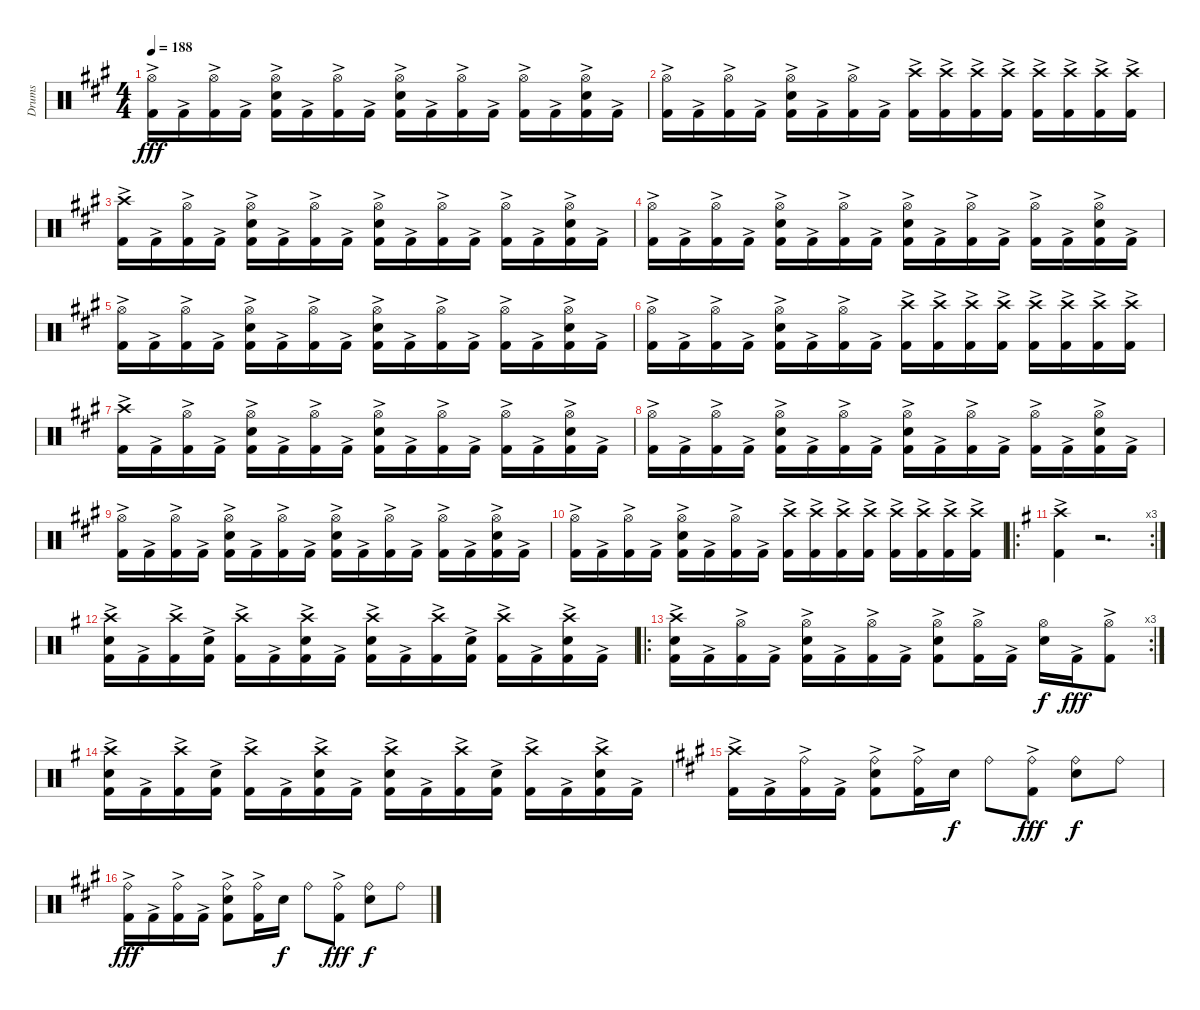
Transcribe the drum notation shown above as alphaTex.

\track ("Drums" "Drums") {instrument percussion}
\staff {score}
\articulation defaults
\ts (4 4)
\tempo 188
\clef neutral
\ks f#minor
("Hi-Hat (open)" "Kick (hit) 2"{ac}).16{dy fff} "Kick (hit) 2"{ac}.16 ("Hi-Hat (open)" "Kick (hit) 2"{ac}).16 "Kick (hit) 2"{ac}.16 ("Hi-Hat (open)" "Snare (hit) 2" "Kick (hit) 2"{ac}).16 "Kick (hit) 2"{ac}.16 ("Hi-Hat (open)" "Kick (hit) 2"{ac}).16 "Kick (hit) 2"{ac}.16 ("Hi-Hat (open)" "Snare (hit) 2" "Kick (hit) 2"{ac}).16 "Kick (hit) 2"{ac}.16 ("Hi-Hat (open)" "Kick (hit) 2"{ac}).16 "Kick (hit) 2"{ac}.16 ("Hi-Hat (open)" "Kick (hit) 2"{ac}).16 "Kick (hit) 2"{ac}.16 ("Hi-Hat (open)" "Snare (hit) 2" "Kick (hit) 2"{ac}).16 "Kick (hit) 2"{ac}.16 |
("Hi-Hat (open)" "Kick (hit) 2"{ac}).16 "Kick (hit) 2"{ac}.16 ("Hi-Hat (open)" "Kick (hit) 2"{ac}).16 "Kick (hit) 2"{ac}.16 ("Hi-Hat (open)" "Snare (hit) 2" "Kick (hit) 2"{ac}).16 "Kick (hit) 2"{ac}.16 ("Hi-Hat (open)" "Kick (hit) 2"{ac}).16 "Kick (hit) 2"{ac}.16 ("Crash high (hit)" "Kick (hit) 2"{ac}).16 ("Crash high (hit)" "Kick (hit) 2"{ac}).16 ("Crash high (hit)" "Kick (hit) 2"{ac}).16 ("Crash high (hit)" "Kick (hit) 2"{ac}).16 ("Crash high (hit)" "Kick (hit) 2"{ac}).16 ("Crash high (hit)" "Kick (hit) 2"{ac}).16 ("Crash high (hit)" "Kick (hit) 2"{ac}).16 ("Crash high (hit)" "Kick (hit) 2"{ac}).16 |
("Crash high (hit)" "Kick (hit) 2"{ac}).16 "Kick (hit) 2"{ac}.16 ("Hi-Hat (open)" "Kick (hit) 2"{ac}).16 "Kick (hit) 2"{ac}.16 ("Hi-Hat (open)" "Snare (hit) 2" "Kick (hit) 2"{ac}).16 "Kick (hit) 2"{ac}.16 ("Hi-Hat (open)" "Kick (hit) 2"{ac}).16 "Kick (hit) 2"{ac}.16 ("Hi-Hat (open)" "Snare (hit) 2" "Kick (hit) 2"{ac}).16 "Kick (hit) 2"{ac}.16 ("Hi-Hat (open)" "Kick (hit) 2"{ac}).16 "Kick (hit) 2"{ac}.16 ("Hi-Hat (open)" "Kick (hit) 2"{ac}).16 "Kick (hit) 2"{ac}.16 ("Hi-Hat (open)" "Snare (hit) 2" "Kick (hit) 2"{ac}).16 "Kick (hit) 2"{ac}.16 |
("Hi-Hat (open)" "Kick (hit) 2"{ac}).16 "Kick (hit) 2"{ac}.16 ("Hi-Hat (open)" "Kick (hit) 2"{ac}).16 "Kick (hit) 2"{ac}.16 ("Hi-Hat (open)" "Snare (hit) 2" "Kick (hit) 2"{ac}).16 "Kick (hit) 2"{ac}.16 ("Hi-Hat (open)" "Kick (hit) 2"{ac}).16 "Kick (hit) 2"{ac}.16 ("Hi-Hat (open)" "Snare (hit) 2" "Kick (hit) 2"{ac}).16 "Kick (hit) 2"{ac}.16 ("Hi-Hat (open)" "Kick (hit) 2"{ac}).16 "Kick (hit) 2"{ac}.16 ("Hi-Hat (open)" "Kick (hit) 2"{ac}).16 "Kick (hit) 2"{ac}.16 ("Hi-Hat (open)" "Snare (hit) 2" "Kick (hit) 2"{ac}).16 "Kick (hit) 2"{ac}.16 |
("Hi-Hat (open)" "Kick (hit) 2"{ac}).16 "Kick (hit) 2"{ac}.16 ("Hi-Hat (open)" "Kick (hit) 2"{ac}).16 "Kick (hit) 2"{ac}.16 ("Hi-Hat (open)" "Snare (hit) 2" "Kick (hit) 2"{ac}).16 "Kick (hit) 2"{ac}.16 ("Hi-Hat (open)" "Kick (hit) 2"{ac}).16 "Kick (hit) 2"{ac}.16 ("Hi-Hat (open)" "Snare (hit) 2" "Kick (hit) 2"{ac}).16 "Kick (hit) 2"{ac}.16 ("Hi-Hat (open)" "Kick (hit) 2"{ac}).16 "Kick (hit) 2"{ac}.16 ("Hi-Hat (open)" "Kick (hit) 2"{ac}).16 "Kick (hit) 2"{ac}.16 ("Hi-Hat (open)" "Snare (hit) 2" "Kick (hit) 2"{ac}).16 "Kick (hit) 2"{ac}.16 |
("Hi-Hat (open)" "Kick (hit) 2"{ac}).16 "Kick (hit) 2"{ac}.16 ("Hi-Hat (open)" "Kick (hit) 2"{ac}).16 "Kick (hit) 2"{ac}.16 ("Hi-Hat (open)" "Snare (hit) 2" "Kick (hit) 2"{ac}).16 "Kick (hit) 2"{ac}.16 ("Hi-Hat (open)" "Kick (hit) 2"{ac}).16 "Kick (hit) 2"{ac}.16 ("Crash high (hit)" "Kick (hit) 2"{ac}).16 ("Crash high (hit)" "Kick (hit) 2"{ac}).16 ("Crash high (hit)" "Kick (hit) 2"{ac}).16 ("Crash high (hit)" "Kick (hit) 2"{ac}).16 ("Crash high (hit)" "Kick (hit) 2"{ac}).16 ("Crash high (hit)" "Kick (hit) 2"{ac}).16 ("Crash high (hit)" "Kick (hit) 2"{ac}).16 ("Crash high (hit)" "Kick (hit) 2"{ac}).16 |
("Crash high (hit)" "Kick (hit) 2"{ac}).16 "Kick (hit) 2"{ac}.16 ("Hi-Hat (open)" "Kick (hit) 2"{ac}).16 "Kick (hit) 2"{ac}.16 ("Hi-Hat (open)" "Snare (hit) 2" "Kick (hit) 2"{ac}).16 "Kick (hit) 2"{ac}.16 ("Hi-Hat (open)" "Kick (hit) 2"{ac}).16 "Kick (hit) 2"{ac}.16 ("Hi-Hat (open)" "Snare (hit) 2" "Kick (hit) 2"{ac}).16 "Kick (hit) 2"{ac}.16 ("Hi-Hat (open)" "Kick (hit) 2"{ac}).16 "Kick (hit) 2"{ac}.16 ("Hi-Hat (open)" "Kick (hit) 2"{ac}).16 "Kick (hit) 2"{ac}.16 ("Hi-Hat (open)" "Snare (hit) 2" "Kick (hit) 2"{ac}).16 "Kick (hit) 2"{ac}.16 |
("Hi-Hat (open)" "Kick (hit) 2"{ac}).16 "Kick (hit) 2"{ac}.16 ("Hi-Hat (open)" "Kick (hit) 2"{ac}).16 "Kick (hit) 2"{ac}.16 ("Hi-Hat (open)" "Snare (hit) 2" "Kick (hit) 2"{ac}).16 "Kick (hit) 2"{ac}.16 ("Hi-Hat (open)" "Kick (hit) 2"{ac}).16 "Kick (hit) 2"{ac}.16 ("Hi-Hat (open)" "Snare (hit) 2" "Kick (hit) 2"{ac}).16 "Kick (hit) 2"{ac}.16 ("Hi-Hat (open)" "Kick (hit) 2"{ac}).16 "Kick (hit) 2"{ac}.16 ("Hi-Hat (open)" "Kick (hit) 2"{ac}).16 "Kick (hit) 2"{ac}.16 ("Hi-Hat (open)" "Snare (hit) 2" "Kick (hit) 2"{ac}).16 "Kick (hit) 2"{ac}.16 |
("Hi-Hat (open)" "Kick (hit) 2"{ac}).16 "Kick (hit) 2"{ac}.16 ("Hi-Hat (open)" "Kick (hit) 2"{ac}).16 "Kick (hit) 2"{ac}.16 ("Hi-Hat (open)" "Snare (hit) 2" "Kick (hit) 2"{ac}).16 "Kick (hit) 2"{ac}.16 ("Hi-Hat (open)" "Kick (hit) 2"{ac}).16 "Kick (hit) 2"{ac}.16 ("Hi-Hat (open)" "Snare (hit) 2" "Kick (hit) 2"{ac}).16 "Kick (hit) 2"{ac}.16 ("Hi-Hat (open)" "Kick (hit) 2"{ac}).16 "Kick (hit) 2"{ac}.16 ("Hi-Hat (open)" "Kick (hit) 2"{ac}).16 "Kick (hit) 2"{ac}.16 ("Hi-Hat (open)" "Snare (hit) 2" "Kick (hit) 2"{ac}).16 "Kick (hit) 2"{ac}.16 |
("Hi-Hat (open)" "Kick (hit) 2"{ac}).16 "Kick (hit) 2"{ac}.16 ("Hi-Hat (open)" "Kick (hit) 2"{ac}).16 "Kick (hit) 2"{ac}.16 ("Hi-Hat (open)" "Snare (hit) 2" "Kick (hit) 2"{ac}).16 "Kick (hit) 2"{ac}.16 ("Hi-Hat (open)" "Kick (hit) 2"{ac}).16 "Kick (hit) 2"{ac}.16 ("Crash high (hit)" "Kick (hit) 2"{ac}).16 ("Crash high (hit)" "Kick (hit) 2"{ac}).16 ("Crash high (hit)" "Kick (hit) 2"{ac}).16 ("Crash high (hit)" "Kick (hit) 2"{ac}).16 ("Crash high (hit)" "Kick (hit) 2"{ac}).16 ("Crash high (hit)" "Kick (hit) 2"{ac}).16 ("Crash high (hit)" "Kick (hit) 2"{ac}).16 ("Crash high (hit)" "Kick (hit) 2"{ac}).16 |
\ro
\rc 3
\ks eminor
("Crash high (hit)" "Kick (hit) 2"{ac}).4 r.2{d} |
("Crash high (hit)" "Snare (hit) 2" "Kick (hit) 2"{ac}).16 "Kick (hit) 2"{ac}.16 ("Crash high (hit)" "Kick (hit) 2"{ac}).16 ("Snare (hit) 2" "Kick (hit) 2"{ac}).16 ("Crash high (hit)" "Kick (hit) 2"{ac}).16 "Kick (hit) 2"{ac}.16 ("Crash high (hit)" "Snare (hit) 2" "Kick (hit) 2"{ac}).16 "Kick (hit) 2"{ac}.16 ("Crash high (hit)" "Snare (hit) 2" "Kick (hit) 2"{ac}).16 "Kick (hit) 2"{ac}.16 ("Crash high (hit)" "Kick (hit) 2"{ac}).16 ("Snare (hit) 2" "Kick (hit) 2"{ac}).16 ("Crash high (hit)" "Kick (hit) 2"{ac}).16 "Kick (hit) 2"{ac}.16 ("Crash high (hit)" "Snare (hit) 2" "Kick (hit) 2"{ac}).16 "Kick (hit) 2"{ac}.16 |
\ro
\rc 3
("Crash high (hit)" "Snare (hit) 2" "Kick (hit) 2"{ac}).16 "Kick (hit) 2"{ac}.16 ("Hi-Hat (open)" "Kick (hit) 2"{ac}).16 "Kick (hit) 2"{ac}.16 ("Hi-Hat (open)" "Snare (hit) 2" "Kick (hit) 2"{ac}).16 "Kick (hit) 2"{ac}.16 ("Hi-Hat (open)" "Kick (hit) 2"{ac}).16 "Kick (hit) 2"{ac}.16 ("Hi-Hat (open)" "Snare (hit) 2" "Kick (hit) 2"{ac}).8 ("Hi-Hat (open)" "Kick (hit) 2"{ac}).16 "Kick (hit) 2"{ac}.16 ("Hi-Hat (open)" "Snare (hit) 2").16{dy f} "Kick (hit) 2"{ac}.16{dy fff} ("Hi-Hat (open)" "Kick (hit) 2"{ac}).8 |
("Crash high (hit)" "Snare (hit) 2" "Kick (hit) 2"{ac}).16 "Kick (hit) 2"{ac}.16 ("Crash high (hit)" "Kick (hit) 2"{ac}).16 ("Snare (hit) 2" "Kick (hit) 2"{ac}).16 ("Crash high (hit)" "Kick (hit) 2"{ac}).16 "Kick (hit) 2"{ac}.16 ("Crash high (hit)" "Snare (hit) 2" "Kick (hit) 2"{ac}).16 "Kick (hit) 2"{ac}.16 ("Crash high (hit)" "Snare (hit) 2" "Kick (hit) 2"{ac}).16 "Kick (hit) 2"{ac}.16 ("Crash high (hit)" "Kick (hit) 2"{ac}).16 ("Snare (hit) 2" "Kick (hit) 2"{ac}).16 ("Crash high (hit)" "Kick (hit) 2"{ac}).16 "Kick (hit) 2"{ac}.16 ("Crash high (hit)" "Snare (hit) 2" "Kick (hit) 2"{ac}).16 "Kick (hit) 2"{ac}.16 |
\ks f#minor
("Crash high (hit)" "Kick (hit) 2"{ac}).16 "Kick (hit) 2"{ac}.16 ("Ride (bell)" "Kick (hit) 2"{ac}).16 "Kick (hit) 2"{ac}.16 ("Ride (bell)" "Snare (hit) 2" "Kick (hit) 2"{ac}).8 ("Ride (bell)" "Kick (hit) 2"{ac}).16 "Snare (hit) 2".16{dy f} "Ride (bell)".8 ("Ride (bell)" "Kick (hit) 2"{ac}).8{dy fff} ("Ride (bell)" "Snare (hit) 2").8{dy f} "Ride (bell)".8 |
("Ride (bell)" "Kick (hit) 2"{ac}).16{dy fff} "Kick (hit) 2"{ac}.16 ("Ride (bell)" "Kick (hit) 2"{ac}).16 "Kick (hit) 2"{ac}.16 ("Ride (bell)" "Snare (hit) 2" "Kick (hit) 2"{ac}).8 ("Ride (bell)" "Kick (hit) 2"{ac}).16 "Snare (hit) 2".16{dy f} "Ride (bell)".8 ("Ride (bell)" "Kick (hit) 2"{ac}).8{dy fff} ("Ride (bell)" "Snare (hit) 2").8{dy f} "Ride (bell)".8
